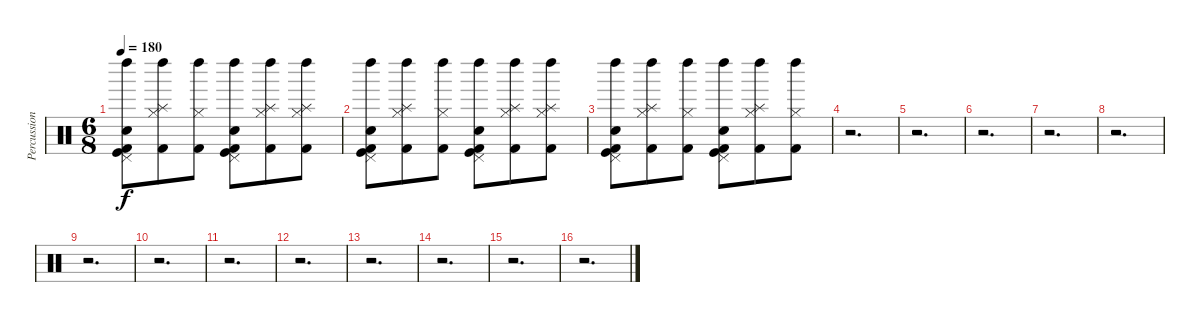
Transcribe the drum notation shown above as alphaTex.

\track ("Percussion" "Percussion") {instrument percussion}
\staff {score}
\articulation defaults
\ts (6 8)
\tempo 180
\clef neutral
\ks c
("Snare (hit) 2" "Kick (hit) 2" "Pedal Hi-Hat (hit)" "Kick (hit)" "Left Maraca (hit)").8{dy f} ("Hi-Hat (closed)" "Kick (hit) 2" "Splash (hit)" "Left Maraca (hit)").8 ("Kick (hit) 2" "Hi-Hat (closed)" "Left Maraca (hit)").8 ("Snare (hit) 2" "Kick (hit) 2" "Pedal Hi-Hat (hit)" "Kick (hit)" "Left Maraca (hit)").8 ("Hi-Hat (closed)" "Kick (hit) 2" "Splash (hit)" "Left Maraca (hit)").8 ("Kick (hit) 2" "Hi-Hat (closed)" "Splash (hit)" "Left Maraca (hit)").8 |
("Snare (hit) 2" "Kick (hit) 2" "Pedal Hi-Hat (hit)" "Kick (hit)" "Left Maraca (hit)").8 ("Hi-Hat (closed)" "Kick (hit) 2" "Splash (hit)" "Left Maraca (hit)").8 ("Kick (hit) 2" "Hi-Hat (closed)" "Left Maraca (hit)").8 ("Snare (hit) 2" "Kick (hit) 2" "Pedal Hi-Hat (hit)" "Kick (hit)" "Left Maraca (hit)").8 ("Hi-Hat (closed)" "Kick (hit) 2" "Splash (hit)" "Left Maraca (hit)").8 ("Kick (hit) 2" "Hi-Hat (closed)" "Splash (hit)" "Left Maraca (hit)").8 |
("Snare (hit) 2" "Kick (hit) 2" "Pedal Hi-Hat (hit)" "Kick (hit)" "Left Maraca (hit)").8 ("Hi-Hat (closed)" "Kick (hit) 2" "Splash (hit)" "Left Maraca (hit)").8 ("Kick (hit) 2" "Hi-Hat (closed)" "Left Maraca (hit)").8 ("Snare (hit) 2" "Kick (hit) 2" "Pedal Hi-Hat (hit)" "Kick (hit)" "Left Maraca (hit)").8 ("Hi-Hat (closed)" "Kick (hit) 2" "Splash (hit)" "Left Maraca (hit)").8 ("Kick (hit) 2" "Hi-Hat (closed)" "Left Maraca (hit)").8 |
r.2{d} |
r.2{d} |
r.2{d} |
r.2{d} |
r.2{d} |
r.2{d} |
r.2{d} |
r.2{d} |
r.2{d} |
r.2{d} |
r.2{d} |
r.2{d} |
r.2{d}
